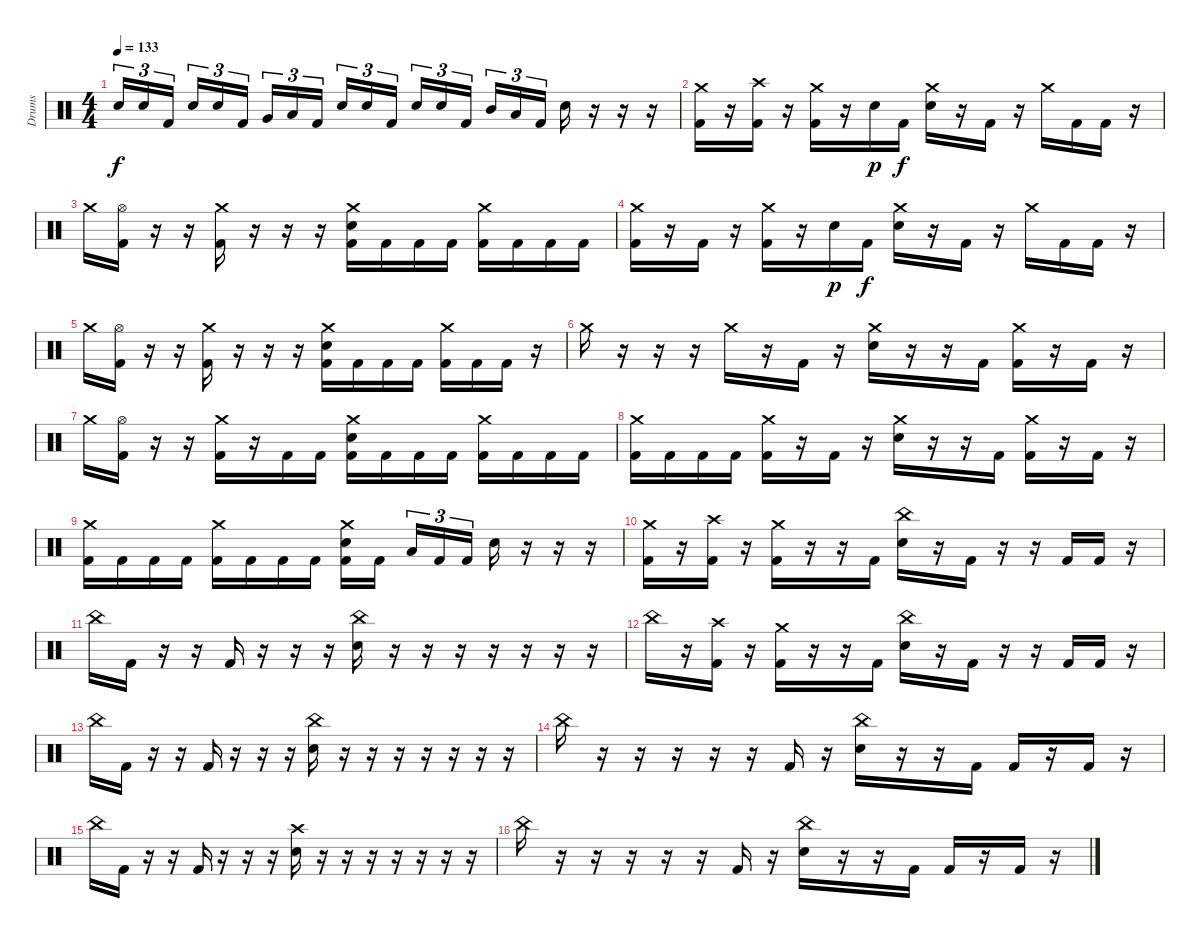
\track ("Drums" "Drums") {instrument percussion}
\staff {score}
\articulation defaults
\ts (4 4)
\tempo 133
\clef neutral
\ks c "Snare (hit) 2".16{tu (3 2) dy f} "Snare (hit) 2".16{tu (3 2)} "Kick (hit) 2".16{tu (3 2) beam splitsecondary} "Snare (hit) 2".16{tu (3 2)} "Snare (hit) 2".16{tu (3 2)} "Kick (hit) 2".16{tu (3 2)} "Very Low Tom (hit)".16{tu (3 2)} "Low Floor Tom (hit)".16{tu (3 2)} "Kick (hit) 2".16{tu (3 2) beam splitsecondary} "Snare (hit) 2".16{tu (3 2)} "Snare (hit) 2".16{tu (3 2)} "Kick (hit) 2".16{tu (3 2)} "Snare (hit) 2".16{tu (3 2)} "Snare (hit) 2".16{tu (3 2)} "Kick (hit) 2".16{tu (3 2) beam splitsecondary} "Mid Tom (hit)".16{tu (3 2)} "Low Tom (hit)".16{tu (3 2)} "Kick (hit) 2".16{tu (3 2)} "Snare (hit) 2".16
r.16 r.16 r.16 |
("Crash medium (hit)" "Kick (hit) 2").16 r.16 ("Crash high (hit)" "Kick (hit) 2").16 r.16 ("Crash medium (hit)" "Kick (hit) 2").16 r.16 "Snare (hit) 2".16{dy p} "Kick (hit) 2".16{dy f} ("Crash medium (hit)" "Snare (hit) 2").16 r.16 "Kick (hit) 2".16 r.16 "Crash medium (hit)".16 "Kick (hit) 2".16 "Kick (hit) 2".16 r.16 |
"Crash medium (hit)".16 ("Hi-Hat (open)" "Kick (hit) 2").16 r.16 r.16 ("Crash medium (hit)" "Kick (hit) 2").16 r.16 r.16 r.16 ("Crash medium (hit)" "Snare (hit) 2" "Kick (hit) 2").16 "Kick (hit) 2".16 "Kick (hit) 2".16 "Kick (hit) 2".16 ("Crash medium (hit)" "Kick (hit) 2").16 "Kick (hit) 2".16 "Kick (hit) 2".16 "Kick (hit) 2".16 |
("Crash medium (hit)" "Kick (hit) 2").16 r.16 "Kick (hit) 2".16 r.16 ("Crash medium (hit)" "Kick (hit) 2").16 r.16 "Snare (hit) 2".16{dy p} "Kick (hit) 2".16{dy f} ("Crash medium (hit)" "Snare (hit) 2").16 r.16 "Kick (hit) 2".16 r.16 "Crash medium (hit)".16 "Kick (hit) 2".16 "Kick (hit) 2".16 r.16 |
"Crash medium (hit)".16 ("Hi-Hat (open)" "Kick (hit) 2").16 r.16 r.16 ("Crash medium (hit)" "Kick (hit) 2").16 r.16 r.16 r.16 ("Crash medium (hit)" "Snare (hit) 2" "Kick (hit) 2").16 "Kick (hit) 2".16 "Kick (hit) 2".16 "Kick (hit) 2".16 ("Crash medium (hit)" "Kick (hit) 2").16 "Kick (hit) 2".16 "Kick (hit) 2".16 r.16 |
"Crash medium (hit)".16 r.16 r.16 r.16 "Crash medium (hit)".16 r.16 "Kick (hit) 2".16 r.16 ("Crash medium (hit)" "Snare (hit) 2").16 r.16 r.16 "Kick (hit) 2".16 ("Crash medium (hit)" "Kick (hit) 2").16 r.16 "Kick (hit) 2".16 r.16 |
"Crash medium (hit)".16 ("Hi-Hat (open)" "Kick (hit) 2").16 r.16 r.16 ("Crash medium (hit)" "Kick (hit) 2").16 r.16 "Kick (hit) 2".16 "Kick (hit) 2".16 ("Crash medium (hit)" "Snare (hit) 2" "Kick (hit) 2").16 "Kick (hit) 2".16 "Kick (hit) 2".16 "Kick (hit) 2".16 ("Crash medium (hit)" "Kick (hit) 2").16 "Kick (hit) 2".16 "Kick (hit) 2".16 "Kick (hit) 2".16 |
("Crash medium (hit)" "Kick (hit) 2").16 "Kick (hit) 2".16 "Kick (hit) 2".16 "Kick (hit) 2".16 ("Crash medium (hit)" "Kick (hit) 2").16 r.16 "Kick (hit) 2".16 r.16 ("Crash medium (hit)" "Snare (hit) 2").16 r.16 r.16 "Kick (hit) 2".16 ("Crash medium (hit)" "Kick (hit) 2").16 r.16 "Kick (hit) 2".16 r.16 |
("Crash medium (hit)" "Kick (hit) 2").16 "Kick (hit) 2".16 "Kick (hit) 2".16 "Kick (hit) 2".16 ("Crash medium (hit)" "Kick (hit) 2").16 "Kick (hit) 2".16 "Kick (hit) 2".16 "Kick (hit) 2".16 ("Crash medium (hit)" "Snare (hit) 2" "Kick (hit) 2").16 "Kick (hit) 2".16{beam splitsecondary} "Low Floor Tom (hit)".16{tu (3 2)} "Kick (hit) 2".16{tu (3 2)} "Kick (hit) 2".16{tu (3 2)} "Snare (hit) 2".16 r.16 r.16 r.16 |
("Crash medium (hit)" "Kick (hit) 2").16 r.16 ("Crash high (hit)" "Kick (hit) 2").16 r.16 ("Crash medium (hit)" "Kick (hit) 2").16 r.16 r.16 "Kick (hit) 2".16 ("China (hit)" "Snare (hit) 2").16 r.16 "Kick (hit) 2".16 r.16 r.16 "Kick (hit) 2".16 "Kick (hit) 2".16 r.16 |
"China (hit)".16 "Kick (hit) 2".16 r.16 r.16 "Kick (hit) 2".16 r.16 r.16 r.16 ("China (hit)" "Snare (hit) 2").16 r.16 r.16 r.16 r.16 r.16 r.16 r.16 |
"China (hit)".16 r.16 ("Crash high (hit)" "Kick (hit) 2").16 r.16 ("Crash medium (hit)" "Kick (hit) 2").16 r.16 r.16 "Kick (hit) 2".16 ("China (hit)" "Snare (hit) 2").16 r.16 "Kick (hit) 2".16 r.16 r.16 "Kick (hit) 2".16 "Kick (hit) 2".16 r.16 |
"China (hit)".16 "Kick (hit) 2".16 r.16 r.16 "Kick (hit) 2".16 r.16 r.16 r.16 ("China (hit)" "Snare (hit) 2").16 r.16 r.16 r.16 r.16 r.16 r.16 r.16 |
"China (hit)".16 r.16 r.16 r.16 r.16 r.16 "Kick (hit) 2".16 r.16 ("China (hit)" "Snare (hit) 2").16 r.16 r.16 "Kick (hit) 2".16 "Kick (hit) 2".16 r.16 "Kick (hit) 2".16 r.16 |
"China (hit)".16 "Kick (hit) 2".16 r.16 r.16 "Kick (hit) 2".16 r.16 r.16 r.16 ("Crash high (hit)" "Snare (hit) 2").16 r.16 r.16 r.16 r.16 r.16 r.16 r.16 |
"China (hit)".16 r.16 r.16 r.16 r.16 r.16 "Kick (hit) 2".16 r.16 ("China (hit)" "Snare (hit) 2").16 r.16 r.16 "Kick (hit) 2".16 "Kick (hit) 2".16 r.16 "Kick (hit) 2".16 r.16
